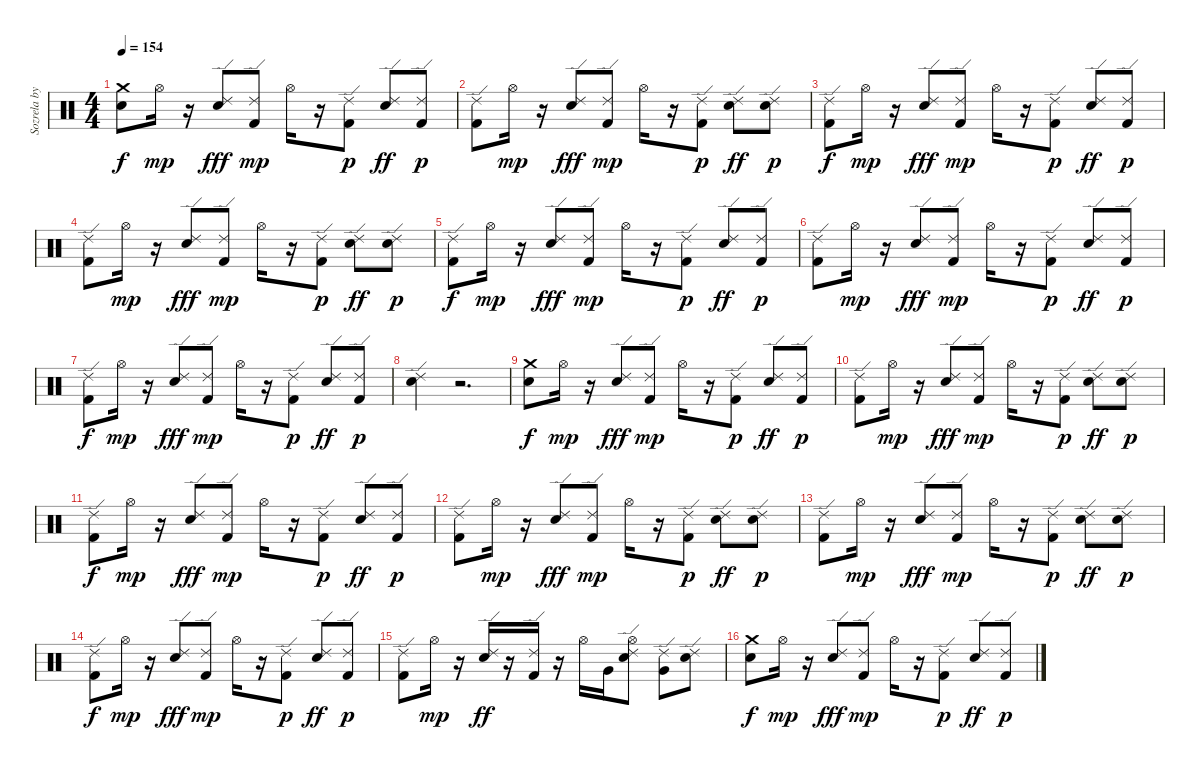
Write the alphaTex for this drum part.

\track ("Sozrela by Anton" "Sozrela by") {instrument percussion}
\staff {score}
\articulation defaults
\ts (4 4)
\tempo 154
\clef neutral
\ks c
("Electric Snare (hit)" "Crash medium (hit)").8{dy f} "Hi-Hat (open)".16{dy mp} r.16 ("Ride (edge) 2" "Snare (hit) 2").8{dy fff} ("Ride (edge) 2" "Kick (hit) 2").8{dy mp} "Hi-Hat (open)".16 r.16 ("Ride (edge) 2" "Kick (hit) 2").8{dy p} ("Ride (edge) 2" "Snare (hit) 2").8{dy ff} ("Ride (edge) 2" "Kick (hit) 2").8{dy p} |
("Kick (hit) 2" "Ride (edge) 2").8 "Hi-Hat (open)".16{dy mp} r.16 ("Ride (edge) 2" "Snare (hit) 2").8{dy fff} ("Ride (edge) 2" "Kick (hit) 2").8{dy mp} "Hi-Hat (open)".16 r.16 ("Ride (edge) 2" "Kick (hit) 2").8{dy p} ("Ride (edge) 2" "Snare (hit) 2").8{dy ff} ("Ride (edge) 2" "Snare (hit) 2").8{dy p} |
("Kick (hit) 2" "Ride (edge) 2").8{dy f} "Hi-Hat (open)".16{dy mp} r.16 ("Ride (edge) 2" "Snare (hit) 2").8{dy fff} ("Ride (edge) 2" "Kick (hit) 2").8{dy mp} "Hi-Hat (open)".16 r.16 ("Ride (edge) 2" "Kick (hit) 2").8{dy p} ("Ride (edge) 2" "Snare (hit) 2").8{dy ff} ("Ride (edge) 2" "Kick (hit) 2").8{dy p} |
("Kick (hit) 2" "Ride (edge) 2").8 "Hi-Hat (open)".16{dy mp} r.16 ("Ride (edge) 2" "Snare (hit) 2").8{dy fff} ("Ride (edge) 2" "Kick (hit) 2").8{dy mp} "Hi-Hat (open)".16 r.16 ("Ride (edge) 2" "Kick (hit) 2").8{dy p} ("Ride (edge) 2" "Snare (hit) 2").8{dy ff} ("Ride (edge) 2" "Snare (hit) 2").8{dy p} |
("Kick (hit) 2" "Ride (edge) 2").8{dy f} "Hi-Hat (open)".16{dy mp} r.16 ("Ride (edge) 2" "Snare (hit) 2").8{dy fff} ("Ride (edge) 2" "Kick (hit) 2").8{dy mp} "Hi-Hat (open)".16 r.16 ("Ride (edge) 2" "Kick (hit) 2").8{dy p} ("Ride (edge) 2" "Snare (hit) 2").8{dy ff} ("Ride (edge) 2" "Kick (hit) 2").8{dy p} |
("Kick (hit) 2" "Ride (edge) 2").8 "Hi-Hat (open)".16{dy mp} r.16 ("Ride (edge) 2" "Snare (hit) 2").8{dy fff} ("Ride (edge) 2" "Kick (hit) 2").8{dy mp} "Hi-Hat (open)".16 r.16 ("Ride (edge) 2" "Kick (hit) 2").8{dy p} ("Ride (edge) 2" "Snare (hit) 2").8{dy ff} ("Ride (edge) 2" "Kick (hit) 2").8{dy p} |
("Kick (hit) 2" "Ride (edge) 2").8{dy f} "Hi-Hat (open)".16{dy mp} r.16 ("Ride (edge) 2" "Snare (hit) 2").8{dy fff} ("Ride (edge) 2" "Kick (hit) 2").8{dy mp} "Hi-Hat (open)".16 r.16 ("Ride (edge) 2" "Kick (hit) 2").8{dy p} ("Ride (edge) 2" "Snare (hit) 2").8{dy ff} ("Ride (edge) 2" "Kick (hit) 2").8{dy p} |
("Snare (hit) 2" "Ride (edge) 2").4 r.2{d} |
("Electric Snare (hit)" "Crash medium (hit)").8{dy f} "Hi-Hat (open)".16{dy mp} r.16 ("Ride (edge) 2" "Snare (hit) 2").8{dy fff} ("Ride (edge) 2" "Kick (hit) 2").8{dy mp} "Hi-Hat (open)".16 r.16 ("Ride (edge) 2" "Kick (hit) 2").8{dy p} ("Ride (edge) 2" "Snare (hit) 2").8{dy ff} ("Ride (edge) 2" "Kick (hit) 2").8{dy p} |
("Kick (hit) 2" "Ride (edge) 2").8 "Hi-Hat (open)".16{dy mp} r.16 ("Ride (edge) 2" "Snare (hit) 2").8{dy fff} ("Ride (edge) 2" "Kick (hit) 2").8{dy mp} "Hi-Hat (open)".16 r.16 ("Ride (edge) 2" "Kick (hit) 2").8{dy p} ("Ride (edge) 2" "Snare (hit) 2").8{dy ff} ("Ride (edge) 2" "Snare (hit) 2").8{dy p} |
("Kick (hit) 2" "Ride (edge) 2").8{dy f} "Hi-Hat (open)".16{dy mp} r.16 ("Ride (edge) 2" "Snare (hit) 2").8{dy fff} ("Ride (edge) 2" "Kick (hit) 2").8{dy mp} "Hi-Hat (open)".16 r.16 ("Ride (edge) 2" "Kick (hit) 2").8{dy p} ("Ride (edge) 2" "Snare (hit) 2").8{dy ff} ("Ride (edge) 2" "Kick (hit) 2").8{dy p} |
("Kick (hit) 2" "Ride (edge) 2").8 "Hi-Hat (open)".16{dy mp} r.16 ("Ride (edge) 2" "Snare (hit) 2").8{dy fff} ("Ride (edge) 2" "Kick (hit) 2").8{dy mp} "Hi-Hat (open)".16 r.16 ("Ride (edge) 2" "Kick (hit) 2").8{dy p} ("Ride (edge) 2" "Snare (hit) 2").8{dy ff} ("Ride (edge) 2" "Snare (hit) 2").8{dy p} |
("Kick (hit) 2" "Ride (edge) 2").8 "Hi-Hat (open)".16{dy mp} r.16 ("Ride (edge) 2" "Snare (hit) 2").8{dy fff} ("Ride (edge) 2" "Kick (hit) 2").8{dy mp} "Hi-Hat (open)".16 r.16 ("Ride (edge) 2" "Kick (hit) 2").8{dy p} ("Ride (edge) 2" "Snare (hit) 2").8{dy ff} ("Ride (edge) 2" "Snare (hit) 2").8{dy p} |
("Kick (hit) 2" "Ride (edge) 2").8{dy f} "Hi-Hat (open)".16{dy mp} r.16 ("Ride (edge) 2" "Snare (hit) 2").8{dy fff} ("Ride (edge) 2" "Kick (hit) 2").8{dy mp} "Hi-Hat (open)".16 r.16 ("Ride (edge) 2" "Kick (hit) 2").8{dy p} ("Ride (edge) 2" "Snare (hit) 2").8{dy ff} ("Ride (edge) 2" "Kick (hit) 2").8{dy p} |
("Kick (hit) 2" "Ride (edge) 2").8 "Hi-Hat (open)".16{dy mp} r.16 ("Snare (hit) 2" "Ride (edge) 2").16{dy ff} r.16 ("Kick (hit) 2" "Ride (edge) 2").16 r.16 "Hi-Hat (open)".16 "Very Low Tom (hit)".16 ("Hi-Hat (open)" "Ride (edge) 2" "Electric Snare (hit)").8 ("Ride (edge) 2" "Very Low Tom (hit)").8 ("Ride (edge) 2" "Electric Snare (hit)").8 |
("Electric Snare (hit)" "Crash medium (hit)").8{dy f} "Hi-Hat (open)".16{dy mp} r.16 ("Ride (edge) 2" "Snare (hit) 2").8{dy fff} ("Ride (edge) 2" "Kick (hit) 2").8{dy mp} "Hi-Hat (open)".16 r.16 ("Ride (edge) 2" "Kick (hit) 2").8{dy p} ("Ride (edge) 2" "Snare (hit) 2").8{dy ff} ("Ride (edge) 2" "Kick (hit) 2").8{dy p}
